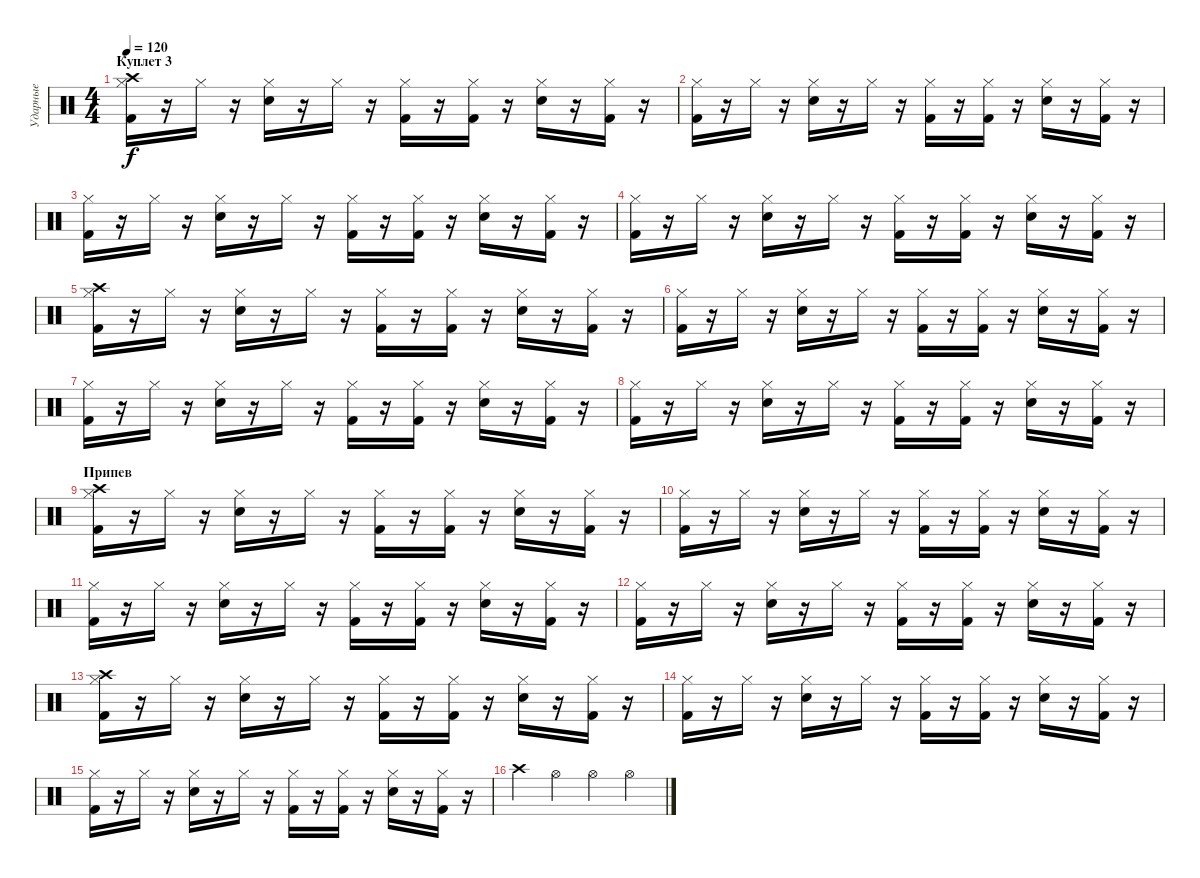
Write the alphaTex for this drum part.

\track ("Ударные" "Ударные") {instrument percussion}
\staff {score}
\articulation defaults
\ts (4 4)
\section ("" "Куплет 3")
\tempo 120
\clef neutral
\ks c
("Hi-Hat (closed)" "Kick (hit) 2" "Crash high (hit)").16{dy f} r.16 "Hi-Hat (closed)".16 r.16 ("Hi-Hat (closed)" "Snare (hit) 2").16 r.16 "Hi-Hat (closed)".16 r.16 ("Hi-Hat (closed)" "Kick (hit) 2").16 r.16 ("Hi-Hat (closed)" "Kick (hit) 2").16 r.16 ("Hi-Hat (closed)" "Snare (hit) 2").16 r.16 ("Hi-Hat (closed)" "Kick (hit) 2").16 r.16 |
("Hi-Hat (closed)" "Kick (hit) 2").16 r.16 "Hi-Hat (closed)".16 r.16 ("Hi-Hat (closed)" "Snare (hit) 2").16 r.16 "Hi-Hat (closed)".16 r.16 ("Hi-Hat (closed)" "Kick (hit) 2").16 r.16 ("Hi-Hat (closed)" "Kick (hit) 2").16 r.16 ("Hi-Hat (closed)" "Snare (hit) 2").16 r.16 ("Hi-Hat (closed)" "Kick (hit) 2").16 r.16 |
("Hi-Hat (closed)" "Kick (hit) 2").16 r.16 "Hi-Hat (closed)".16 r.16 ("Hi-Hat (closed)" "Snare (hit) 2").16 r.16 "Hi-Hat (closed)".16 r.16 ("Hi-Hat (closed)" "Kick (hit) 2").16 r.16 ("Hi-Hat (closed)" "Kick (hit) 2").16 r.16 ("Hi-Hat (closed)" "Snare (hit) 2").16 r.16 ("Hi-Hat (closed)" "Kick (hit) 2").16 r.16 |
("Hi-Hat (closed)" "Kick (hit) 2").16 r.16 "Hi-Hat (closed)".16 r.16 ("Hi-Hat (closed)" "Snare (hit) 2").16 r.16 "Hi-Hat (closed)".16 r.16 ("Hi-Hat (closed)" "Kick (hit) 2").16 r.16 ("Hi-Hat (closed)" "Kick (hit) 2").16 r.16 ("Hi-Hat (closed)" "Snare (hit) 2").16 r.16 ("Hi-Hat (closed)" "Kick (hit) 2").16 r.16 |
("Hi-Hat (closed)" "Kick (hit) 2" "Crash high (hit)").16 r.16 "Hi-Hat (closed)".16 r.16 ("Hi-Hat (closed)" "Snare (hit) 2").16 r.16 "Hi-Hat (closed)".16 r.16 ("Hi-Hat (closed)" "Kick (hit) 2").16 r.16 ("Hi-Hat (closed)" "Kick (hit) 2").16 r.16 ("Hi-Hat (closed)" "Snare (hit) 2").16 r.16 ("Hi-Hat (closed)" "Kick (hit) 2").16 r.16 |
("Hi-Hat (closed)" "Kick (hit) 2").16 r.16 "Hi-Hat (closed)".16 r.16 ("Hi-Hat (closed)" "Snare (hit) 2").16 r.16 "Hi-Hat (closed)".16 r.16 ("Hi-Hat (closed)" "Kick (hit) 2").16 r.16 ("Hi-Hat (closed)" "Kick (hit) 2").16 r.16 ("Hi-Hat (closed)" "Snare (hit) 2").16 r.16 ("Hi-Hat (closed)" "Kick (hit) 2").16 r.16 |
("Hi-Hat (closed)" "Kick (hit) 2").16 r.16 "Hi-Hat (closed)".16 r.16 ("Hi-Hat (closed)" "Snare (hit) 2").16 r.16 "Hi-Hat (closed)".16 r.16 ("Hi-Hat (closed)" "Kick (hit) 2").16 r.16 ("Hi-Hat (closed)" "Kick (hit) 2").16 r.16 ("Hi-Hat (closed)" "Snare (hit) 2").16 r.16 ("Hi-Hat (closed)" "Kick (hit) 2").16 r.16 |
("Hi-Hat (closed)" "Kick (hit) 2").16 r.16 "Hi-Hat (closed)".16 r.16 ("Hi-Hat (closed)" "Snare (hit) 2").16 r.16 "Hi-Hat (closed)".16 r.16 ("Hi-Hat (closed)" "Kick (hit) 2").16 r.16 ("Hi-Hat (closed)" "Kick (hit) 2").16 r.16 ("Hi-Hat (closed)" "Snare (hit) 2").16 r.16 ("Hi-Hat (closed)" "Kick (hit) 2").16 r.16 |
\section ("" "Припев")
("Hi-Hat (closed)" "Kick (hit) 2" "Crash high (hit)").16 r.16 "Hi-Hat (closed)".16 r.16 ("Hi-Hat (closed)" "Snare (hit) 2").16 r.16 "Hi-Hat (closed)".16 r.16 ("Hi-Hat (closed)" "Kick (hit) 2").16 r.16 ("Hi-Hat (closed)" "Kick (hit) 2").16 r.16 ("Hi-Hat (closed)" "Snare (hit) 2").16 r.16 ("Hi-Hat (closed)" "Kick (hit) 2").16 r.16 |
("Hi-Hat (closed)" "Kick (hit) 2").16 r.16 "Hi-Hat (closed)".16 r.16 ("Hi-Hat (closed)" "Snare (hit) 2").16 r.16 "Hi-Hat (closed)".16 r.16 ("Hi-Hat (closed)" "Kick (hit) 2").16 r.16 ("Hi-Hat (closed)" "Kick (hit) 2").16 r.16 ("Hi-Hat (closed)" "Snare (hit) 2").16 r.16 ("Hi-Hat (closed)" "Kick (hit) 2").16 r.16 |
("Hi-Hat (closed)" "Kick (hit) 2").16 r.16 "Hi-Hat (closed)".16 r.16 ("Hi-Hat (closed)" "Snare (hit) 2").16 r.16 "Hi-Hat (closed)".16 r.16 ("Hi-Hat (closed)" "Kick (hit) 2").16 r.16 ("Hi-Hat (closed)" "Kick (hit) 2").16 r.16 ("Hi-Hat (closed)" "Snare (hit) 2").16 r.16 ("Hi-Hat (closed)" "Kick (hit) 2").16 r.16 |
("Hi-Hat (closed)" "Kick (hit) 2").16 r.16 "Hi-Hat (closed)".16 r.16 ("Hi-Hat (closed)" "Snare (hit) 2").16 r.16 "Hi-Hat (closed)".16 r.16 ("Hi-Hat (closed)" "Kick (hit) 2").16 r.16 ("Hi-Hat (closed)" "Kick (hit) 2").16 r.16 ("Hi-Hat (closed)" "Snare (hit) 2").16 r.16 ("Hi-Hat (closed)" "Kick (hit) 2").16 r.16 |
("Hi-Hat (closed)" "Kick (hit) 2" "Crash high (hit)").16 r.16 "Hi-Hat (closed)".16 r.16 ("Hi-Hat (closed)" "Snare (hit) 2").16 r.16 "Hi-Hat (closed)".16 r.16 ("Hi-Hat (closed)" "Kick (hit) 2").16 r.16 ("Hi-Hat (closed)" "Kick (hit) 2").16 r.16 ("Hi-Hat (closed)" "Snare (hit) 2").16 r.16 ("Hi-Hat (closed)" "Kick (hit) 2").16 r.16 |
("Hi-Hat (closed)" "Kick (hit) 2").16 r.16 "Hi-Hat (closed)".16 r.16 ("Hi-Hat (closed)" "Snare (hit) 2").16 r.16 "Hi-Hat (closed)".16 r.16 ("Hi-Hat (closed)" "Kick (hit) 2").16 r.16 ("Hi-Hat (closed)" "Kick (hit) 2").16 r.16 ("Hi-Hat (closed)" "Snare (hit) 2").16 r.16 ("Hi-Hat (closed)" "Kick (hit) 2").16 r.16 |
("Hi-Hat (closed)" "Kick (hit) 2").16 r.16 "Hi-Hat (closed)".16 r.16 ("Hi-Hat (closed)" "Snare (hit) 2").16 r.16 "Hi-Hat (closed)".16 r.16 ("Hi-Hat (closed)" "Kick (hit) 2").16 r.16 ("Hi-Hat (closed)" "Kick (hit) 2").16 r.16 ("Hi-Hat (closed)" "Snare (hit) 2").16 r.16 ("Hi-Hat (closed)" "Kick (hit) 2").16 r.16 |
"Crash high (hit)".4 "Hi-Hat (open)".4 "Hi-Hat (open)".4 "Hi-Hat (open)".4
